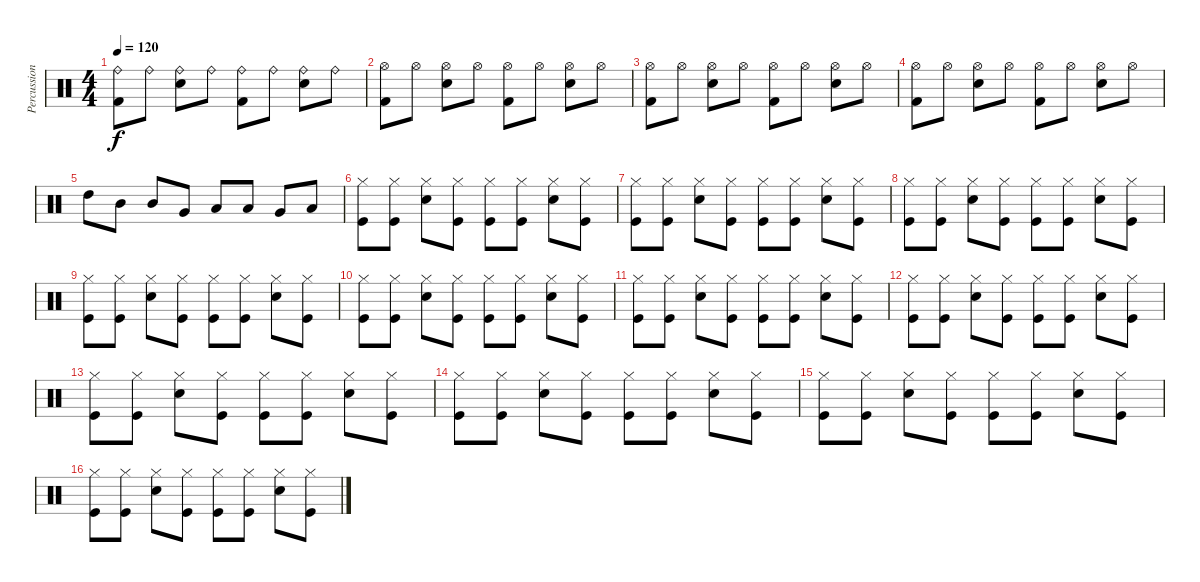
\track ("Percussion" "Percussion") {instrument percussion}
\staff {score}
\articulation defaults
\ts (4 4)
\tempo 120
\clef neutral
\ks c
("Ride (bell)" "Kick (hit) 2").8{dy f} "Ride (bell)".8 ("Ride (bell)" "Electric Snare (hit)").8 "Ride (bell)".8 ("Ride (bell)" "Kick (hit) 2").8 "Ride (bell)".8 ("Ride (bell)" "Electric Snare (hit)").8 "Ride (bell)".8 |
("Hi-Hat (open)" "Kick (hit) 2").8 "Hi-Hat (open)".8 ("Hi-Hat (open)" "Electric Snare (hit)").8 "Hi-Hat (open)".8 ("Hi-Hat (open)" "Kick (hit) 2").8 "Hi-Hat (open)".8 ("Hi-Hat (open)" "Electric Snare (hit)").8 "Hi-Hat (open)".8 |
("Hi-Hat (open)" "Kick (hit) 2").8 "Hi-Hat (open)".8 ("Hi-Hat (open)" "Electric Snare (hit)").8 "Hi-Hat (open)".8 ("Hi-Hat (open)" "Kick (hit) 2").8 "Hi-Hat (open)".8 ("Hi-Hat (open)" "Electric Snare (hit)").8 "Hi-Hat (open)".8 |
("Hi-Hat (open)" "Kick (hit) 2").8 "Hi-Hat (open)".8 ("Hi-Hat (open)" "Electric Snare (hit)").8 "Hi-Hat (open)".8 ("Hi-Hat (open)" "Kick (hit) 2").8 "Hi-Hat (open)".8 ("Hi-Hat (open)" "Electric Snare (hit)").8 "Hi-Hat (open)".8 |
"High Tom (hit)".8 "Mid Tom (hit)".8 "Mid Tom (hit)".8 "Very Low Tom (hit)".8 "Low Floor Tom (hit)".8 "Low Floor Tom (hit)".8 "Very Low Tom (hit)".8 "Low Floor Tom (hit)".8 |
("Hi-Hat (closed)" "Kick (hit)").8 ("Hi-Hat (closed)" "Kick (hit)").8 ("Hi-Hat (closed)" "Snare (hit) 2").8 ("Hi-Hat (closed)" "Kick (hit)").8 ("Hi-Hat (closed)" "Kick (hit)").8 ("Hi-Hat (closed)" "Kick (hit)").8 ("Hi-Hat (closed)" "Snare (hit) 2").8 ("Hi-Hat (closed)" "Kick (hit)").8 |
("Hi-Hat (closed)" "Kick (hit)").8 ("Hi-Hat (closed)" "Kick (hit)").8 ("Hi-Hat (closed)" "Snare (hit) 2").8 ("Hi-Hat (closed)" "Kick (hit)").8 ("Hi-Hat (closed)" "Kick (hit)").8 ("Hi-Hat (closed)" "Kick (hit)").8 ("Hi-Hat (closed)" "Snare (hit) 2").8 ("Hi-Hat (closed)" "Kick (hit)").8 |
("Hi-Hat (closed)" "Kick (hit)").8 ("Hi-Hat (closed)" "Kick (hit)").8 ("Hi-Hat (closed)" "Snare (hit) 2").8 ("Hi-Hat (closed)" "Kick (hit)").8 ("Hi-Hat (closed)" "Kick (hit)").8 ("Hi-Hat (closed)" "Kick (hit)").8 ("Hi-Hat (closed)" "Snare (hit) 2").8 ("Hi-Hat (closed)" "Kick (hit)").8 |
("Hi-Hat (closed)" "Kick (hit)").8 ("Hi-Hat (closed)" "Kick (hit)").8 ("Hi-Hat (closed)" "Snare (hit) 2").8 ("Hi-Hat (closed)" "Kick (hit)").8 ("Hi-Hat (closed)" "Kick (hit)").8 ("Hi-Hat (closed)" "Kick (hit)").8 ("Hi-Hat (closed)" "Snare (hit) 2").8 ("Hi-Hat (closed)" "Kick (hit)").8 |
("Hi-Hat (closed)" "Kick (hit)").8 ("Hi-Hat (closed)" "Kick (hit)").8 ("Hi-Hat (closed)" "Snare (hit) 2").8 ("Hi-Hat (closed)" "Kick (hit)").8 ("Hi-Hat (closed)" "Kick (hit)").8 ("Hi-Hat (closed)" "Kick (hit)").8 ("Hi-Hat (closed)" "Snare (hit) 2").8 ("Hi-Hat (closed)" "Kick (hit)").8 |
("Hi-Hat (closed)" "Kick (hit)").8 ("Hi-Hat (closed)" "Kick (hit)").8 ("Hi-Hat (closed)" "Snare (hit) 2").8 ("Hi-Hat (closed)" "Kick (hit)").8 ("Hi-Hat (closed)" "Kick (hit)").8 ("Hi-Hat (closed)" "Kick (hit)").8 ("Hi-Hat (closed)" "Snare (hit) 2").8 ("Hi-Hat (closed)" "Kick (hit)").8 |
("Hi-Hat (closed)" "Kick (hit)").8 ("Hi-Hat (closed)" "Kick (hit)").8 ("Hi-Hat (closed)" "Snare (hit) 2").8 ("Hi-Hat (closed)" "Kick (hit)").8 ("Hi-Hat (closed)" "Kick (hit)").8 ("Hi-Hat (closed)" "Kick (hit)").8 ("Hi-Hat (closed)" "Snare (hit) 2").8 ("Hi-Hat (closed)" "Kick (hit)").8 |
("Hi-Hat (closed)" "Kick (hit)").8 ("Hi-Hat (closed)" "Kick (hit)").8 ("Hi-Hat (closed)" "Snare (hit) 2").8 ("Hi-Hat (closed)" "Kick (hit)").8 ("Hi-Hat (closed)" "Kick (hit)").8 ("Hi-Hat (closed)" "Kick (hit)").8 ("Hi-Hat (closed)" "Snare (hit) 2").8 ("Hi-Hat (closed)" "Kick (hit)").8 |
("Hi-Hat (closed)" "Kick (hit)").8 ("Hi-Hat (closed)" "Kick (hit)").8 ("Hi-Hat (closed)" "Snare (hit) 2").8 ("Hi-Hat (closed)" "Kick (hit)").8 ("Hi-Hat (closed)" "Kick (hit)").8 ("Hi-Hat (closed)" "Kick (hit)").8 ("Hi-Hat (closed)" "Snare (hit) 2").8 ("Hi-Hat (closed)" "Kick (hit)").8 |
("Hi-Hat (closed)" "Kick (hit)").8 ("Hi-Hat (closed)" "Kick (hit)").8 ("Hi-Hat (closed)" "Snare (hit) 2").8 ("Hi-Hat (closed)" "Kick (hit)").8 ("Hi-Hat (closed)" "Kick (hit)").8 ("Hi-Hat (closed)" "Kick (hit)").8 ("Hi-Hat (closed)" "Snare (hit) 2").8 ("Hi-Hat (closed)" "Kick (hit)").8 |
("Hi-Hat (closed)" "Kick (hit)").8 ("Hi-Hat (closed)" "Kick (hit)").8 ("Hi-Hat (closed)" "Snare (hit) 2").8 ("Hi-Hat (closed)" "Kick (hit)").8 ("Hi-Hat (closed)" "Kick (hit)").8 ("Hi-Hat (closed)" "Kick (hit)").8 ("Hi-Hat (closed)" "Snare (hit) 2").8 ("Hi-Hat (closed)" "Kick (hit)").8
